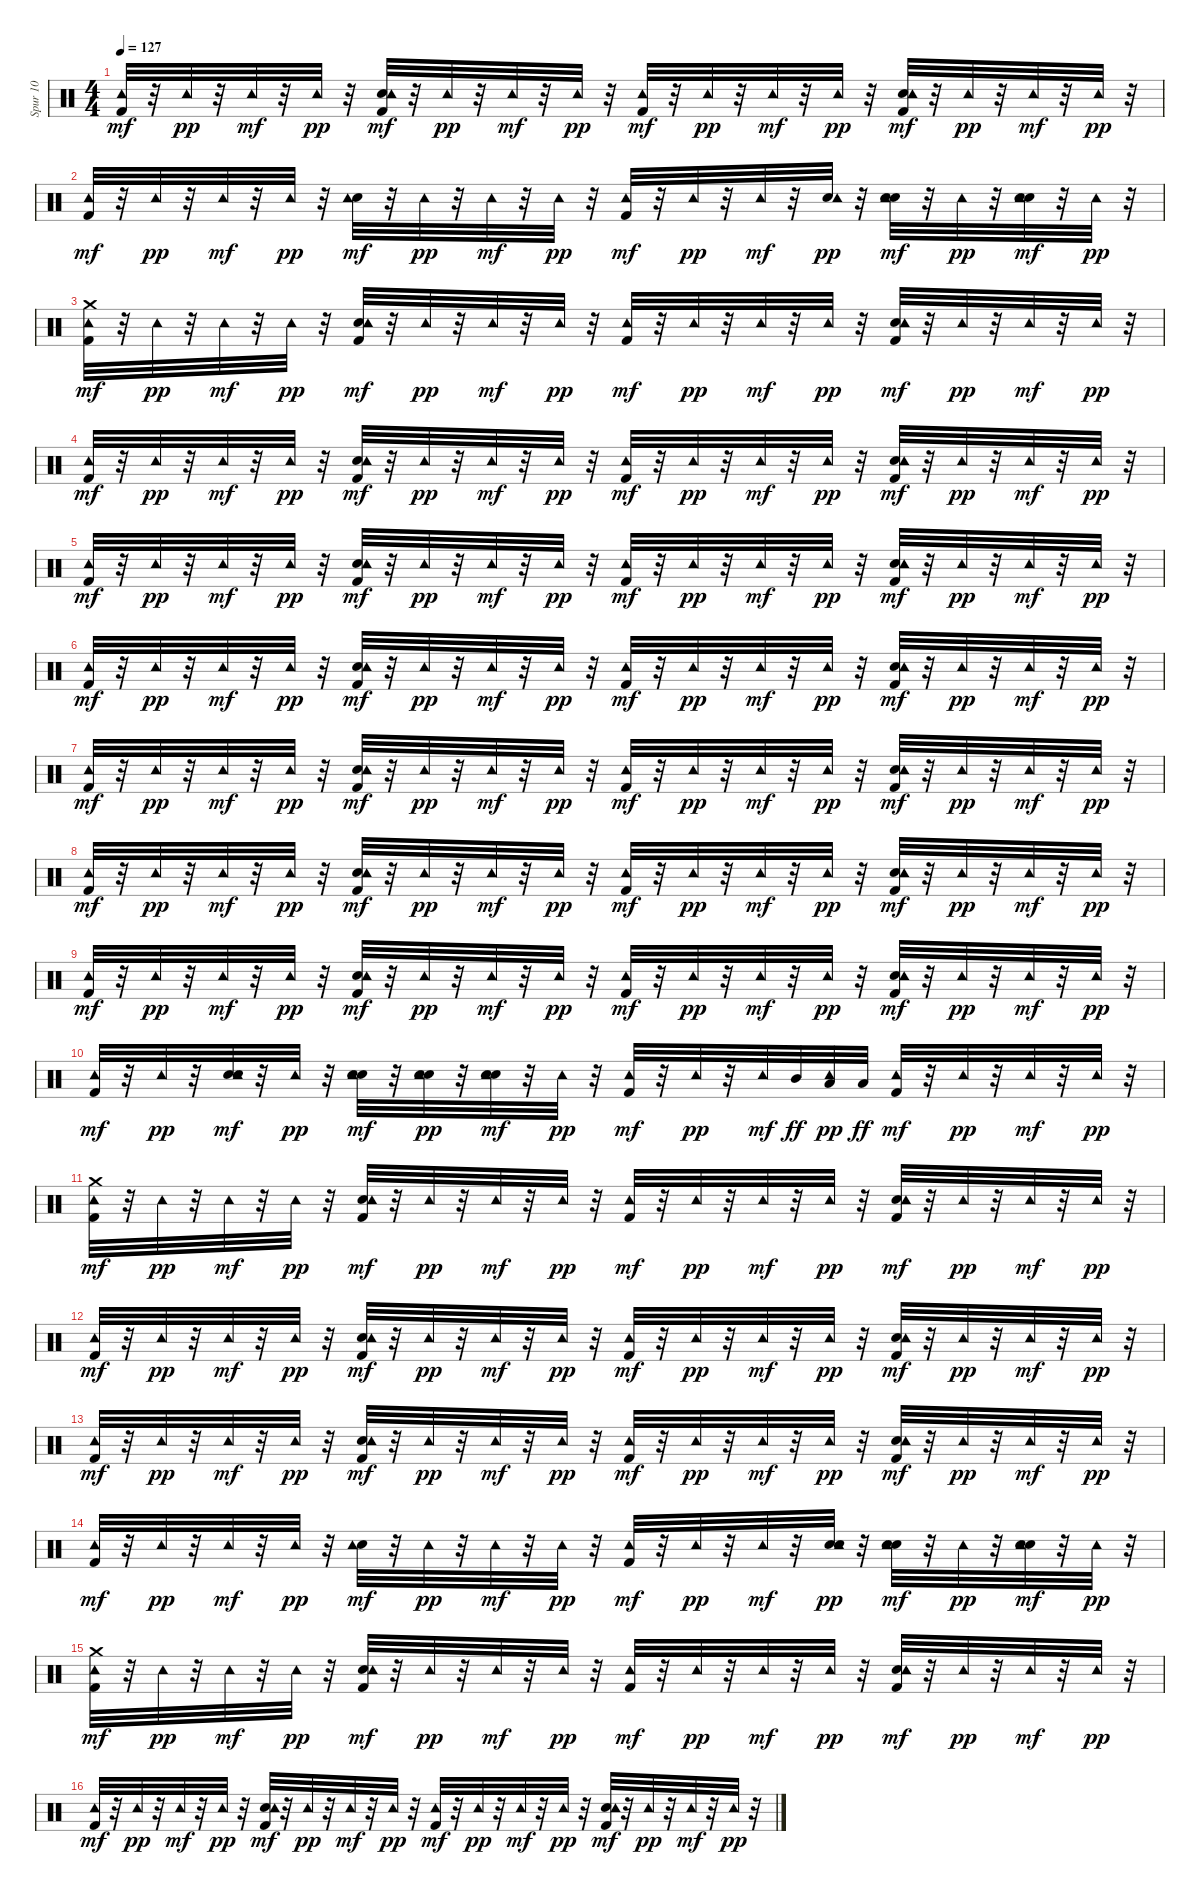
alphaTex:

\track ("Spur 10" "Spur 10") {instrument percussion}
\staff {score}
\articulation defaults
\ts (4 4)
\tempo 127
\clef neutral
\ks c
("Kick (hit) 2" "Tambourine (hit)").32{dy mf} r.32 "Tambourine (hit)".32{dy pp} r.32 "Tambourine (hit)".32{dy mf} r.32 "Tambourine (hit)".32{dy pp} r.32 ("Kick (hit) 2" "Snare (hit) 2" "Tambourine (hit)").32{dy mf} r.32 "Tambourine (hit)".32{dy pp} r.32 "Tambourine (hit)".32{dy mf} r.32 "Tambourine (hit)".32{dy pp} r.32 ("Kick (hit) 2" "Tambourine (hit)").32{dy mf} r.32 "Tambourine (hit)".32{dy pp} r.32 "Tambourine (hit)".32{dy mf} r.32 "Tambourine (hit)".32{dy pp} r.32 ("Kick (hit) 2" "Snare (hit) 2" "Tambourine (hit)").32{dy mf} r.32 "Tambourine (hit)".32{dy pp} r.32 "Tambourine (hit)".32{dy mf} r.32 "Tambourine (hit)".32{dy pp} r.32 |
("Kick (hit) 2" "Tambourine (hit)").32{dy mf} r.32 "Tambourine (hit)".32{dy pp} r.32 "Tambourine (hit)".32{dy mf} r.32 "Tambourine (hit)".32{dy pp} r.32 ("Snare (hit) 2" "Tambourine (hit)").32{dy mf} r.32 "Tambourine (hit)".32{dy pp} r.32 "Tambourine (hit)".32{dy mf} r.32 "Tambourine (hit)".32{dy pp} r.32 ("Kick (hit) 2" "Tambourine (hit)").32{dy mf} r.32 "Tambourine (hit)".32{dy pp} r.32 "Tambourine (hit)".32{dy mf} r.32 ("Snare (hit) 2" "Tambourine (hit)").32{dy pp} r.32 ("Snare (hit) 2" "Electric Snare (hit)" "Tambourine (hit)").32{dy mf} r.32 "Tambourine (hit)".32{dy pp} r.32 ("Snare (hit) 2" "Electric Snare (hit)" "Tambourine (hit)").32{dy mf} r.32 "Tambourine (hit)".32{dy pp} r.32 |
("Kick (hit) 2" "Tambourine (hit)" "Crash medium (hit)").32{dy mf} r.32 "Tambourine (hit)".32{dy pp} r.32 "Tambourine (hit)".32{dy mf} r.32 "Tambourine (hit)".32{dy pp} r.32 ("Kick (hit) 2" "Snare (hit) 2" "Tambourine (hit)").32{dy mf} r.32 "Tambourine (hit)".32{dy pp} r.32 "Tambourine (hit)".32{dy mf} r.32 "Tambourine (hit)".32{dy pp} r.32 ("Kick (hit) 2" "Tambourine (hit)").32{dy mf} r.32 "Tambourine (hit)".32{dy pp} r.32 "Tambourine (hit)".32{dy mf} r.32 "Tambourine (hit)".32{dy pp} r.32 ("Kick (hit) 2" "Snare (hit) 2" "Tambourine (hit)").32{dy mf} r.32 "Tambourine (hit)".32{dy pp} r.32 "Tambourine (hit)".32{dy mf} r.32 "Tambourine (hit)".32{dy pp} r.32 |
("Kick (hit) 2" "Tambourine (hit)").32{dy mf} r.32 "Tambourine (hit)".32{dy pp} r.32 "Tambourine (hit)".32{dy mf} r.32 "Tambourine (hit)".32{dy pp} r.32 ("Kick (hit) 2" "Snare (hit) 2" "Tambourine (hit)").32{dy mf} r.32 "Tambourine (hit)".32{dy pp} r.32 "Tambourine (hit)".32{dy mf} r.32 "Tambourine (hit)".32{dy pp} r.32 ("Kick (hit) 2" "Tambourine (hit)").32{dy mf} r.32 "Tambourine (hit)".32{dy pp} r.32 "Tambourine (hit)".32{dy mf} r.32 "Tambourine (hit)".32{dy pp} r.32 ("Kick (hit) 2" "Snare (hit) 2" "Tambourine (hit)").32{dy mf} r.32 "Tambourine (hit)".32{dy pp} r.32 "Tambourine (hit)".32{dy mf} r.32 "Tambourine (hit)".32{dy pp} r.32 |
("Kick (hit) 2" "Tambourine (hit)").32{dy mf} r.32 "Tambourine (hit)".32{dy pp} r.32 "Tambourine (hit)".32{dy mf} r.32 "Tambourine (hit)".32{dy pp} r.32 ("Kick (hit) 2" "Snare (hit) 2" "Tambourine (hit)").32{dy mf} r.32 "Tambourine (hit)".32{dy pp} r.32 "Tambourine (hit)".32{dy mf} r.32 "Tambourine (hit)".32{dy pp} r.32 ("Kick (hit) 2" "Tambourine (hit)").32{dy mf} r.32 "Tambourine (hit)".32{dy pp} r.32 "Tambourine (hit)".32{dy mf} r.32 "Tambourine (hit)".32{dy pp} r.32 ("Kick (hit) 2" "Snare (hit) 2" "Tambourine (hit)").32{dy mf} r.32 "Tambourine (hit)".32{dy pp} r.32 "Tambourine (hit)".32{dy mf} r.32 "Tambourine (hit)".32{dy pp} r.32 |
("Kick (hit) 2" "Tambourine (hit)").32{dy mf} r.32 "Tambourine (hit)".32{dy pp} r.32 "Tambourine (hit)".32{dy mf} r.32 "Tambourine (hit)".32{dy pp} r.32 ("Kick (hit) 2" "Snare (hit) 2" "Tambourine (hit)").32{dy mf} r.32 "Tambourine (hit)".32{dy pp} r.32 "Tambourine (hit)".32{dy mf} r.32 "Tambourine (hit)".32{dy pp} r.32 ("Kick (hit) 2" "Tambourine (hit)").32{dy mf} r.32 "Tambourine (hit)".32{dy pp} r.32 "Tambourine (hit)".32{dy mf} r.32 "Tambourine (hit)".32{dy pp} r.32 ("Kick (hit) 2" "Snare (hit) 2" "Tambourine (hit)").32{dy mf} r.32 "Tambourine (hit)".32{dy pp} r.32 "Tambourine (hit)".32{dy mf} r.32 "Tambourine (hit)".32{dy pp} r.32 |
("Kick (hit) 2" "Tambourine (hit)").32{dy mf} r.32 "Tambourine (hit)".32{dy pp} r.32 "Tambourine (hit)".32{dy mf} r.32 "Tambourine (hit)".32{dy pp} r.32 ("Kick (hit) 2" "Snare (hit) 2" "Tambourine (hit)").32{dy mf} r.32 "Tambourine (hit)".32{dy pp} r.32 "Tambourine (hit)".32{dy mf} r.32 "Tambourine (hit)".32{dy pp} r.32 ("Kick (hit) 2" "Tambourine (hit)").32{dy mf} r.32 "Tambourine (hit)".32{dy pp} r.32 "Tambourine (hit)".32{dy mf} r.32 "Tambourine (hit)".32{dy pp} r.32 ("Kick (hit) 2" "Snare (hit) 2" "Tambourine (hit)").32{dy mf} r.32 "Tambourine (hit)".32{dy pp} r.32 "Tambourine (hit)".32{dy mf} r.32 "Tambourine (hit)".32{dy pp} r.32 |
("Kick (hit) 2" "Tambourine (hit)").32{dy mf} r.32 "Tambourine (hit)".32{dy pp} r.32 "Tambourine (hit)".32{dy mf} r.32 "Tambourine (hit)".32{dy pp} r.32 ("Kick (hit) 2" "Snare (hit) 2" "Tambourine (hit)").32{dy mf} r.32 "Tambourine (hit)".32{dy pp} r.32 "Tambourine (hit)".32{dy mf} r.32 "Tambourine (hit)".32{dy pp} r.32 ("Kick (hit) 2" "Tambourine (hit)").32{dy mf} r.32 "Tambourine (hit)".32{dy pp} r.32 "Tambourine (hit)".32{dy mf} r.32 "Tambourine (hit)".32{dy pp} r.32 ("Kick (hit) 2" "Snare (hit) 2" "Tambourine (hit)").32{dy mf} r.32 "Tambourine (hit)".32{dy pp} r.32 "Tambourine (hit)".32{dy mf} r.32 "Tambourine (hit)".32{dy pp} r.32 |
("Kick (hit) 2" "Tambourine (hit)").32{dy mf} r.32 "Tambourine (hit)".32{dy pp} r.32 "Tambourine (hit)".32{dy mf} r.32 "Tambourine (hit)".32{dy pp} r.32 ("Kick (hit) 2" "Snare (hit) 2" "Tambourine (hit)").32{dy mf} r.32 "Tambourine (hit)".32{dy pp} r.32 "Tambourine (hit)".32{dy mf} r.32 "Tambourine (hit)".32{dy pp} r.32 ("Kick (hit) 2" "Tambourine (hit)").32{dy mf} r.32 "Tambourine (hit)".32{dy pp} r.32 "Tambourine (hit)".32{dy mf} r.32 "Tambourine (hit)".32{dy pp} r.32 ("Kick (hit) 2" "Snare (hit) 2" "Tambourine (hit)").32{dy mf} r.32 "Tambourine (hit)".32{dy pp} r.32 "Tambourine (hit)".32{dy mf} r.32 "Tambourine (hit)".32{dy pp} r.32 |
("Kick (hit) 2" "Tambourine (hit)").32{dy mf} r.32 "Tambourine (hit)".32{dy pp} r.32 ("Snare (hit) 2" "Electric Snare (hit)" "Tambourine (hit)").32{dy mf} r.32 "Tambourine (hit)".32{dy pp} r.32 ("Snare (hit) 2" "Electric Snare (hit)" "Tambourine (hit)").32{dy mf} r.32 ("Snare (hit) 2" "Electric Snare (hit)" "Tambourine (hit)").32{dy pp} r.32 ("Snare (hit) 2" "Electric Snare (hit)" "Tambourine (hit)").32{dy mf} r.32 "Tambourine (hit)".32{dy pp} r.32 ("Kick (hit) 2" "Tambourine (hit)").32{dy mf} r.32 "Tambourine (hit)".32{dy pp} r.32 "Tambourine (hit)".32{dy mf} "Mid Tom (hit)".32{dy ff} ("Low Tom (hit)" "Tambourine (hit)").32{dy pp} "Low Floor Tom (hit)".32{dy ff} ("Kick (hit) 2" "Tambourine (hit)").32{dy mf} r.32 "Tambourine (hit)".32{dy pp} r.32 "Tambourine (hit)".32{dy mf} r.32 "Tambourine (hit)".32{dy pp} r.32 |
("Kick (hit) 2" "Tambourine (hit)" "Crash medium (hit)").32{dy mf} r.32 "Tambourine (hit)".32{dy pp} r.32 "Tambourine (hit)".32{dy mf} r.32 "Tambourine (hit)".32{dy pp} r.32 ("Kick (hit) 2" "Snare (hit) 2" "Tambourine (hit)").32{dy mf} r.32 "Tambourine (hit)".32{dy pp} r.32 "Tambourine (hit)".32{dy mf} r.32 "Tambourine (hit)".32{dy pp} r.32 ("Kick (hit) 2" "Tambourine (hit)").32{dy mf} r.32 "Tambourine (hit)".32{dy pp} r.32 "Tambourine (hit)".32{dy mf} r.32 "Tambourine (hit)".32{dy pp} r.32 ("Kick (hit) 2" "Snare (hit) 2" "Tambourine (hit)").32{dy mf} r.32 "Tambourine (hit)".32{dy pp} r.32 "Tambourine (hit)".32{dy mf} r.32 "Tambourine (hit)".32{dy pp} r.32 |
("Kick (hit) 2" "Tambourine (hit)").32{dy mf} r.32 "Tambourine (hit)".32{dy pp} r.32 "Tambourine (hit)".32{dy mf} r.32 "Tambourine (hit)".32{dy pp} r.32 ("Kick (hit) 2" "Snare (hit) 2" "Tambourine (hit)").32{dy mf} r.32 "Tambourine (hit)".32{dy pp} r.32 "Tambourine (hit)".32{dy mf} r.32 "Tambourine (hit)".32{dy pp} r.32 ("Kick (hit) 2" "Tambourine (hit)").32{dy mf} r.32 "Tambourine (hit)".32{dy pp} r.32 "Tambourine (hit)".32{dy mf} r.32 "Tambourine (hit)".32{dy pp} r.32 ("Kick (hit) 2" "Snare (hit) 2" "Tambourine (hit)").32{dy mf} r.32 "Tambourine (hit)".32{dy pp} r.32 "Tambourine (hit)".32{dy mf} r.32 "Tambourine (hit)".32{dy pp} r.32 |
("Kick (hit) 2" "Tambourine (hit)").32{dy mf} r.32 "Tambourine (hit)".32{dy pp} r.32 "Tambourine (hit)".32{dy mf} r.32 "Tambourine (hit)".32{dy pp} r.32 ("Kick (hit) 2" "Snare (hit) 2" "Tambourine (hit)").32{dy mf} r.32 "Tambourine (hit)".32{dy pp} r.32 "Tambourine (hit)".32{dy mf} r.32 "Tambourine (hit)".32{dy pp} r.32 ("Kick (hit) 2" "Tambourine (hit)").32{dy mf} r.32 "Tambourine (hit)".32{dy pp} r.32 "Tambourine (hit)".32{dy mf} r.32 "Tambourine (hit)".32{dy pp} r.32 ("Kick (hit) 2" "Snare (hit) 2" "Tambourine (hit)").32{dy mf} r.32 "Tambourine (hit)".32{dy pp} r.32 "Tambourine (hit)".32{dy mf} r.32 "Tambourine (hit)".32{dy pp} r.32 |
("Kick (hit) 2" "Tambourine (hit)").32{dy mf} r.32 "Tambourine (hit)".32{dy pp} r.32 "Tambourine (hit)".32{dy mf} r.32 "Tambourine (hit)".32{dy pp} r.32 ("Snare (hit) 2" "Tambourine (hit)").32{dy mf} r.32 "Tambourine (hit)".32{dy pp} r.32 "Tambourine (hit)".32{dy mf} r.32 "Tambourine (hit)".32{dy pp} r.32 ("Kick (hit) 2" "Tambourine (hit)").32{dy mf} r.32 "Tambourine (hit)".32{dy pp} r.32 "Tambourine (hit)".32{dy mf} r.32 ("Snare (hit) 2" "Electric Snare (hit)" "Tambourine (hit)").32{dy pp} r.32 ("Snare (hit) 2" "Electric Snare (hit)" "Tambourine (hit)").32{dy mf} r.32 "Tambourine (hit)".32{dy pp} r.32 ("Snare (hit) 2" "Electric Snare (hit)" "Tambourine (hit)").32{dy mf} r.32 "Tambourine (hit)".32{dy pp} r.32 |
("Kick (hit) 2" "Tambourine (hit)" "Crash medium (hit)").32{dy mf} r.32 "Tambourine (hit)".32{dy pp} r.32 "Tambourine (hit)".32{dy mf} r.32 "Tambourine (hit)".32{dy pp} r.32 ("Kick (hit) 2" "Snare (hit) 2" "Tambourine (hit)").32{dy mf} r.32 "Tambourine (hit)".32{dy pp} r.32 "Tambourine (hit)".32{dy mf} r.32 "Tambourine (hit)".32{dy pp} r.32 ("Kick (hit) 2" "Tambourine (hit)").32{dy mf} r.32 "Tambourine (hit)".32{dy pp} r.32 "Tambourine (hit)".32{dy mf} r.32 "Tambourine (hit)".32{dy pp} r.32 ("Kick (hit) 2" "Snare (hit) 2" "Tambourine (hit)").32{dy mf} r.32 "Tambourine (hit)".32{dy pp} r.32 "Tambourine (hit)".32{dy mf} r.32 "Tambourine (hit)".32{dy pp} r.32 |
("Kick (hit) 2" "Tambourine (hit)").32{dy mf} r.32 "Tambourine (hit)".32{dy pp} r.32 "Tambourine (hit)".32{dy mf} r.32 "Tambourine (hit)".32{dy pp} r.32 ("Kick (hit) 2" "Snare (hit) 2" "Tambourine (hit)").32{dy mf} r.32 "Tambourine (hit)".32{dy pp} r.32 "Tambourine (hit)".32{dy mf} r.32 "Tambourine (hit)".32{dy pp} r.32 ("Kick (hit) 2" "Tambourine (hit)").32{dy mf} r.32 "Tambourine (hit)".32{dy pp} r.32 "Tambourine (hit)".32{dy mf} r.32 "Tambourine (hit)".32{dy pp} r.32 ("Kick (hit) 2" "Snare (hit) 2" "Tambourine (hit)").32{dy mf} r.32 "Tambourine (hit)".32{dy pp} r.32 "Tambourine (hit)".32{dy mf} r.32 "Tambourine (hit)".32{dy pp} r.32
